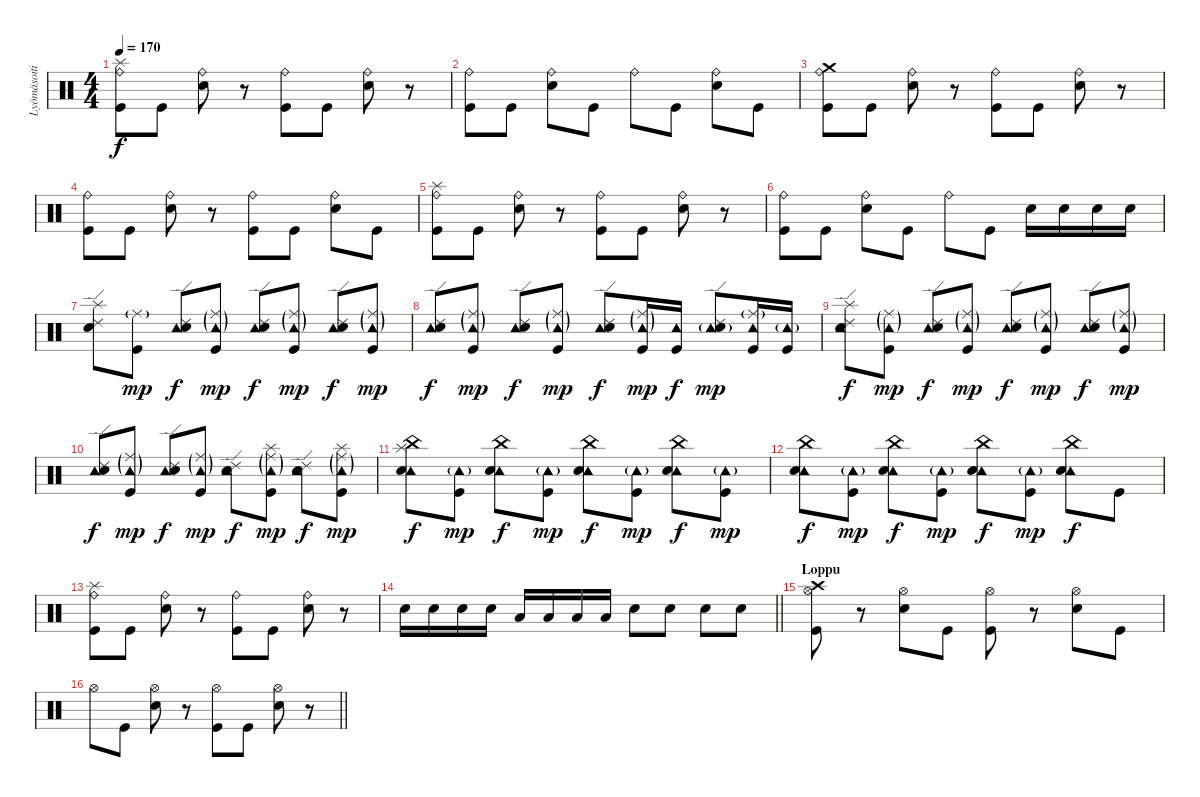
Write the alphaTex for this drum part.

\track ("Lyömäsoitin" "Lyömäsoiti") {instrument percussion}
\staff {score}
\articulation defaults
\ts (4 4)
\tempo 170
\clef neutral
\ks c
("Splash (hit)" "Ride (bell)" "Kick (hit)").8{dy f} "Kick (hit)".8 ("Ride (bell)" "Snare (hit) 2").8 r.8 ("Ride (bell)" "Kick (hit)").8 "Kick (hit)".8 ("Ride (bell)" "Snare (hit) 2").8 r.8 |
("Ride (bell)" "Kick (hit)").8 "Kick (hit)".8 ("Ride (bell)" "Snare (hit) 2").8 "Kick (hit)".8 "Ride (bell)".8 "Kick (hit)".8 ("Ride (bell)" "Snare (hit) 2").8 "Kick (hit)".8 |
("Crash medium (hit)" "Ride (bell)" "Kick (hit)").8 "Kick (hit)".8 ("Ride (bell)" "Snare (hit) 2").8 r.8 ("Ride (bell)" "Kick (hit)").8 "Kick (hit)".8 ("Ride (bell)" "Snare (hit) 2").8 r.8 |
("Ride (bell)" "Kick (hit)").8 "Kick (hit)".8 ("Ride (bell)" "Snare (hit) 2").8 r.8 ("Ride (bell)" "Kick (hit)").8 "Kick (hit)".8 ("Ride (bell)" "Snare (hit) 2").8 "Kick (hit)".8 |
("Splash (hit)" "Ride (bell)" "Kick (hit)").8 "Kick (hit)".8 ("Ride (bell)" "Snare (hit) 2").8 r.8 ("Ride (bell)" "Kick (hit)").8 "Kick (hit)".8 ("Ride (bell)" "Snare (hit) 2").8 r.8 |
("Ride (bell)" "Kick (hit)").8 "Kick (hit)".8 ("Ride (bell)" "Snare (hit) 2").8 "Kick (hit)".8 "Ride (bell)".8 "Kick (hit)".8 "Snare (hit) 2".16 "Snare (hit) 2".16 "Snare (hit) 2".16 "Snare (hit) 2".16 |
("Splash (hit)" "Ride (edge) 2" "Snare (hit) 2").8 ("Ride (middle)"{g} "Kick (hit)").8{dy mp} ("Tambourine (hit)" "Ride (edge) 2" "Snare (hit) 2").8{dy f} ("Tambourine (hit)"{g} "Ride (middle)"{g} "Kick (hit)").8{dy mp} ("Tambourine (hit)" "Ride (edge) 2" "Snare (hit) 2").8{dy f} ("Tambourine (hit)"{g} "Ride (middle)"{g} "Kick (hit)").8{dy mp} ("Tambourine (hit)" "Ride (edge) 2" "Snare (hit) 2").8{dy f} ("Tambourine (hit)"{g} "Ride (middle)"{g} "Kick (hit)").8{dy mp} |
("Tambourine (hit)" "Ride (edge) 2" "Snare (hit) 2").8{dy f} ("Tambourine (hit)"{g} "Ride (middle)"{g} "Kick (hit)").8{dy mp} ("Tambourine (hit)" "Ride (edge) 2" "Snare (hit) 2").8{dy f} ("Tambourine (hit)"{g} "Ride (middle)"{g} "Kick (hit)").8{dy mp} ("Tambourine (hit)" "Ride (edge) 2" "Snare (hit) 2").8{dy f} ("Tambourine (hit)"{g} "Ride (middle)"{g} "Kick (hit)").16{dy mp} ("Tambourine (hit)" "Kick (hit)").16{dy f} ("Tambourine (hit)"{g} "Ride (edge) 2" "Snare (hit) 2").8{dy mp} ("Tambourine (hit)" "Ride (middle)"{g} "Kick (hit)").16 ("Tambourine (hit)"{g} "Kick (hit)").16 |
("Tambourine (hit)" "Splash (hit)" "Ride (edge) 2" "Snare (hit) 2").8{dy f} ("Tambourine (hit)"{g} "Ride (middle)"{g} "Kick (hit)").8{dy mp} ("Tambourine (hit)" "Ride (edge) 2" "Snare (hit) 2").8{dy f} ("Tambourine (hit)"{g} "Ride (middle)"{g} "Kick (hit)").8{dy mp} ("Tambourine (hit)" "Ride (edge) 2" "Snare (hit) 2").8{dy f} ("Tambourine (hit)"{g} "Ride (middle)"{g} "Kick (hit)").8{dy mp} ("Tambourine (hit)" "Ride (edge) 2" "Snare (hit) 2").8{dy f} ("Tambourine (hit)"{g} "Ride (middle)"{g} "Kick (hit)").8{dy mp} |
("Tambourine (hit)" "Ride (edge) 2" "Snare (hit) 2").8{dy f} ("Tambourine (hit)"{g} "Ride (middle)"{g} "Kick (hit)").8{dy mp} ("Tambourine (hit)" "Ride (edge) 2" "Snare (hit) 2").8{dy f} ("Tambourine (hit)"{g} "Ride (middle)"{g} "Kick (hit)").8{dy mp} ("Tambourine (hit)" "Ride (edge) 2" "Snare (hit) 2").8{dy f} ("Tambourine (hit)"{g} "Splash (hit)" "Ride (middle)"{g} "Kick (hit)").8{dy mp} ("Tambourine (hit)" "Ride (edge) 2" "Snare (hit) 2").8{dy f} ("Tambourine (hit)"{g} "Splash (hit)" "Ride (middle)"{g} "Kick (hit)").8{dy mp} |
("Tambourine (hit)" "Splash (hit)" "China (hit)" "Snare (hit) 2").8{dy f} ("Tambourine (hit)"{g} "Kick (hit)").8{dy mp} ("Tambourine (hit)" "China (hit)" "Snare (hit) 2").8{dy f} ("Tambourine (hit)"{g} "Kick (hit)").8{dy mp} ("Tambourine (hit)" "China (hit)" "Snare (hit) 2").8{dy f} ("Tambourine (hit)"{g} "Kick (hit)").8{dy mp} ("Tambourine (hit)" "China (hit)" "Snare (hit) 2").8{dy f} ("Tambourine (hit)"{g} "Kick (hit)").8{dy mp} |
("Tambourine (hit)" "China (hit)" "Snare (hit) 2").8{dy f} ("Tambourine (hit)"{g} "Kick (hit)").8{dy mp} ("Tambourine (hit)" "China (hit)" "Snare (hit) 2").8{dy f} ("Tambourine (hit)"{g} "Kick (hit)").8{dy mp} ("Tambourine (hit)" "China (hit)" "Snare (hit) 2").8{dy f} ("Tambourine (hit)"{g} "Kick (hit)").8{dy mp} ("Tambourine (hit)" "China (hit)" "Snare (hit) 2").8{dy f} "Kick (hit)".8 |
("Splash (hit)" "Ride (bell)" "Kick (hit)").8 "Kick (hit)".8 ("Ride (bell)" "Snare (hit) 2").8 r.8 ("Ride (bell)" "Kick (hit)").8 "Kick (hit)".8 ("Ride (bell)" "Snare (hit) 2").8 r.8 |
\barLineRight lightlight "Snare (hit) 2".16 "Snare (hit) 2".16 "Snare (hit) 2".16 "Snare (hit) 2".16 "Low Tom (hit)".16 "Low Tom (hit)".16 "Low Tom (hit)".16 "Low Tom (hit)".16 "Snare (hit) 2".8 "Snare (hit) 2".8 "Snare (hit) 2".8 "Snare (hit) 2".8
|
\section ("" "Loppu")
("Crash high (hit)" "Hi-Hat (open)" "Kick (hit)").8 r.8 ("Hi-Hat (open)" "Snare (hit) 2").8 "Kick (hit)".8 ("Hi-Hat (open)" "Kick (hit)").8 r.8 ("Hi-Hat (open)" "Snare (hit) 2").8 "Kick (hit)".8 |
\barLineRight lightlight "Hi-Hat (open)".8 "Kick (hit)".8
("Hi-Hat (open)" "Snare (hit) 2").8 r.8 ("Hi-Hat (open)" "Kick (hit)").8 "Kick (hit)".8 ("Hi-Hat (open)" "Snare (hit) 2").8 r.8
